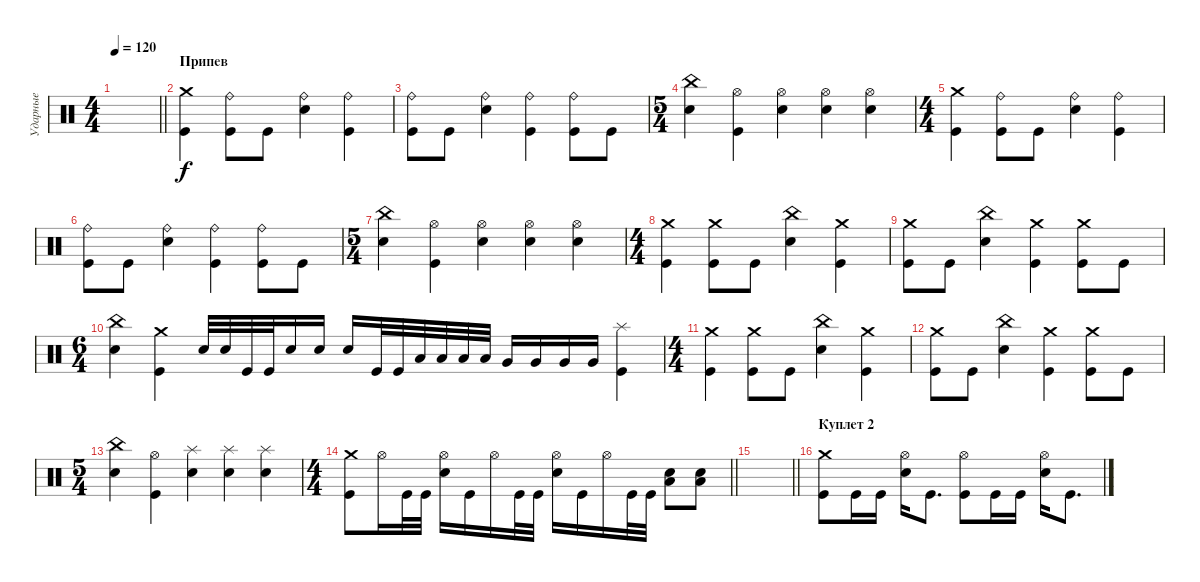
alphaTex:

\track ("Ударные" "Ударные") {instrument percussion}
\staff {score}
\articulation defaults
\ts (4 4)
\tempo 120
\clef neutral
\barLineRight lightlight
\ks c
|
\section ("" "Припев")
("Crash medium (hit)" "Kick (hit)").4 ("Ride (bell)" "Kick (hit)").8 "Kick (hit)".8 ("Ride (bell)" "Electric Snare (hit)").4 ("Ride (bell)" "Kick (hit)").4 |
("Ride (bell)" "Kick (hit)").8 "Kick (hit)".8 ("Ride (bell)" "Electric Snare (hit)").4 ("Ride (bell)" "Kick (hit)").4 ("Ride (bell)" "Kick (hit)").8 "Kick (hit)".8 |
\ts (5 4)
("China (hit)" "Electric Snare (hit)").4 ("Hi-Hat (open)" "Kick (hit)").4 ("Hi-Hat (open)" "Electric Snare (hit)").4 ("Hi-Hat (open)" "Electric Snare (hit)").4 ("Hi-Hat (open)" "Electric Snare (hit)").4 |
\ts (4 4)
("Crash medium (hit)" "Kick (hit)").4 ("Ride (bell)" "Kick (hit)").8 "Kick (hit)".8 ("Ride (bell)" "Electric Snare (hit)").4 ("Ride (bell)" "Kick (hit)").4 |
("Ride (bell)" "Kick (hit)").8 "Kick (hit)".8 ("Ride (bell)" "Electric Snare (hit)").4 ("Ride (bell)" "Kick (hit)").4 ("Ride (bell)" "Kick (hit)").8 "Kick (hit)".8 |
\ts (5 4)
("China (hit)" "Electric Snare (hit)").4 ("Hi-Hat (open)" "Kick (hit)").4 ("Hi-Hat (open)" "Electric Snare (hit)").4 ("Hi-Hat (open)" "Electric Snare (hit)").4 ("Hi-Hat (open)" "Electric Snare (hit)").4 |
\ts (4 4)
("Crash medium (hit)" "Kick (hit)").4 ("Crash medium (hit)" "Kick (hit)").8 "Kick (hit)".8 ("China (hit)" "Electric Snare (hit)").4 ("Crash medium (hit)" "Kick (hit)").4 |
("Crash medium (hit)" "Kick (hit)").8 "Kick (hit)".8 ("China (hit)" "Electric Snare (hit)").4 ("Crash medium (hit)" "Kick (hit)").4 ("Crash medium (hit)" "Kick (hit)").8 "Kick (hit)".8 |
\ts (6 4)
("China (hit)" "Electric Snare (hit)").4 ("Crash medium (hit)" "Kick (hit)").4 "Electric Snare (hit)".32 "Electric Snare (hit)".32 "Kick (hit)".32 "Kick (hit)".32 "Electric Snare (hit)".16 "Electric Snare (hit)".16 "Electric Snare (hit)".16 "Kick (hit)".32 "Kick (hit)".32 "Low Tom (hit)".32 "Low Tom (hit)".32 "Low Tom (hit)".32 "Low Tom (hit)".32 "Very Low Tom (hit)".16 "Very Low Tom (hit)".16 "Very Low Tom (hit)".16 "Very Low Tom (hit)".16 ("Splash (hit)" "Kick (hit)").4 |
\ts (4 4)
("Crash medium (hit)" "Kick (hit)").4 ("Crash medium (hit)" "Kick (hit)").8 "Kick (hit)".8 ("China (hit)" "Electric Snare (hit)").4 ("Crash medium (hit)" "Kick (hit)").4 |
("Crash medium (hit)" "Kick (hit)").8 "Kick (hit)".8 ("China (hit)" "Electric Snare (hit)").4 ("Crash medium (hit)" "Kick (hit)").4 ("Crash medium (hit)" "Kick (hit)").8 "Kick (hit)".8 |
\ts (5 4)
("China (hit)" "Electric Snare (hit)").4 ("Hi-Hat (open)" "Kick (hit)").4 ("Splash (hit)" "Electric Snare (hit)").4 ("Splash (hit)" "Electric Snare (hit)").4 ("Splash (hit)" "Electric Snare (hit)").4 |
\ts (4 4)
\barLineRight lightlight
("Crash medium (hit)" "Kick (hit)").8 "Hi-Hat (open)".16 "Kick (hit)".32 "Kick (hit)".32 ("Hi-Hat (open)" "Electric Snare (hit)").16 "Kick (hit)".16 "Hi-Hat (open)".16 "Kick (hit)".32 "Kick (hit)".32 ("Hi-Hat (open)" "Electric Snare (hit)").16 "Kick (hit)".16 "Hi-Hat (open)".16 "Kick (hit)".32 "Kick (hit)".32 ("Electric Snare (hit)" "Low Floor Tom (hit)").8 ("Electric Snare (hit)" "Low Floor Tom (hit)").8 |
\barLineRight lightlight
|
\section ("" "Куплет 2")
("Crash medium (hit)" "Kick (hit)").8 "Kick (hit)".16 "Kick (hit)".16 ("Hi-Hat (open)" "Electric Snare (hit)").16 "Kick (hit)".8{d} ("Hi-Hat (open)" "Kick (hit)").8 "Kick (hit)".16 "Kick (hit)".16 ("Hi-Hat (open)" "Electric Snare (hit)").16 "Kick (hit)".8{d}
